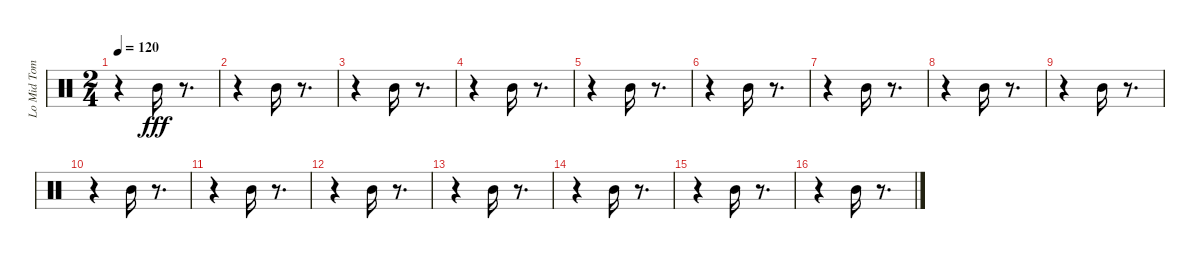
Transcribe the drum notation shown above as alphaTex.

\track ("Lo Mid Tom (1) (1) (1) (1)" "Lo Mid Tom") {instrument percussion}
\staff {score}
\articulation defaults
\ts (2 4)
\tempo 120
\clef neutral
\ks c
r.4{dy fff} "Mid Tom (hit)".16 r.8{d} |
r.4 "Mid Tom (hit)".16 r.8{d} |
r.4 "Mid Tom (hit)".16 r.8{d} |
r.4 "Mid Tom (hit)".16 r.8{d} |
r.4 "Mid Tom (hit)".16 r.8{d} |
r.4 "Mid Tom (hit)".16 r.8{d} |
r.4 "Mid Tom (hit)".16 r.8{d} |
r.4 "Mid Tom (hit)".16 r.8{d} |
r.4 "Mid Tom (hit)".16 r.8{d} |
r.4 "Mid Tom (hit)".16 r.8{d} |
r.4 "Mid Tom (hit)".16 r.8{d} |
r.4 "Mid Tom (hit)".16 r.8{d} |
r.4 "Mid Tom (hit)".16 r.8{d} |
r.4 "Mid Tom (hit)".16 r.8{d} |
r.4 "Mid Tom (hit)".16 r.8{d} |
r.4 "Mid Tom (hit)".16 r.8{d}
